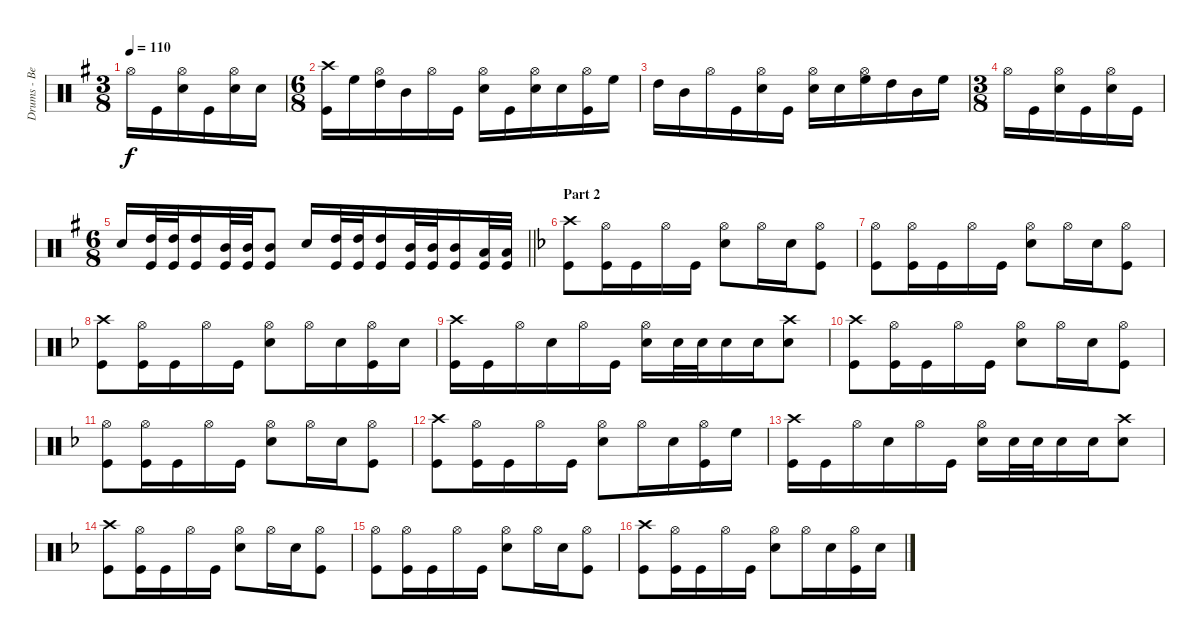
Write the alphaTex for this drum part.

\track ("Drums - Ben Johnston" "Drums - Be") {instrument percussion}
\staff {score}
\articulation defaults
\ts (3 8)
\tempo 110
\clef neutral
\ks g "Hi-Hat (open)".16{dy f} "Kick (hit)".16
("Hi-Hat (open)" "Snare (hit) 2").16 "Kick (hit)".16 ("Hi-Hat (open)" "Snare (hit) 2").16 "Snare (hit) 2".16 |
\ts (6 8)
("Crash high (hit)" "Kick (hit)").16 "High Floor Tom (hit)".16 ("Hi-Hat (open)" "High Tom (hit)").16 "Mid Tom (hit)".16 "Hi-Hat (open)".16 "Kick (hit)".16 ("Hi-Hat (open)" "Snare (hit) 2").16 "Kick (hit)".16 ("Hi-Hat (open)" "Snare (hit) 2").16 "Snare (hit) 2".16 ("Hi-Hat (open)" "Kick (hit)").16 "High Floor Tom (hit)".16 |
"High Tom (hit)".16 "Mid Tom (hit)".16 "Hi-Hat (open)".16 "Kick (hit)".16 ("Hi-Hat (open)" "Snare (hit) 2").16 "Kick (hit)".16 ("Hi-Hat (open)" "Snare (hit) 2").16 "Snare (hit) 2".16 ("Hi-Hat (open)" "High Floor Tom (hit)").16 "High Tom (hit)".16 "Mid Tom (hit)".16 "High Floor Tom (hit)".16 |
\ts (3 8)
"Hi-Hat (open)".16 "Kick (hit)".16 ("Hi-Hat (open)" "Snare (hit) 2").16 "Kick (hit)".16 ("Hi-Hat (open)" "Snare (hit) 2").16 "Kick (hit)".16 |
\ts (6 8)
\barLineRight lightlight "Snare (hit) 2".16
("High Tom (hit)" "Kick (hit)").32 ("High Tom (hit)" "Kick (hit)").32 ("High Tom (hit)" "Kick (hit)").16 ("Mid Tom (hit)" "Kick (hit)").32 ("Mid Tom (hit)" "Kick (hit)").32 ("Mid Tom (hit)" "Kick (hit)").8 "Snare (hit) 2".16 ("High Tom (hit)" "Kick (hit)").32 ("High Tom (hit)" "Kick (hit)").32 ("High Tom (hit)" "Kick (hit)").16 ("Mid Tom (hit)" "Kick (hit)").32 ("Mid Tom (hit)" "Kick (hit)").32 ("Mid Tom (hit)" "Kick (hit)").16 ("Low Tom (hit)" "Kick (hit)").32 ("Low Tom (hit)" "Kick (hit)").32 |
\section ("" "Part 2")
\ks dminor
("Crash high (hit)" "Kick (hit)").8 ("Hi-Hat (open)" "Kick (hit)").16 "Kick (hit)".16 "Hi-Hat (open)".16 "Kick (hit)".16 ("Hi-Hat (open)" "Snare (hit) 2").8 "Hi-Hat (open)".16 "Snare (hit) 2".16 ("Hi-Hat (open)" "Kick (hit)").8 |
("Hi-Hat (open)" "Kick (hit)").8 ("Hi-Hat (open)" "Kick (hit)").16 "Kick (hit)".16 "Hi-Hat (open)".16 "Kick (hit)".16 ("Hi-Hat (open)" "Snare (hit) 2").8 "Hi-Hat (open)".16 "Snare (hit) 2".16 ("Hi-Hat (open)" "Kick (hit)").8 |
("Crash high (hit)" "Kick (hit)").8 ("Hi-Hat (open)" "Kick (hit)").16 "Kick (hit)".16 "Hi-Hat (open)".16 "Kick (hit)".16 ("Hi-Hat (open)" "Snare (hit) 2").8 "Hi-Hat (open)".16 "Snare (hit) 2".16 ("Hi-Hat (open)" "Kick (hit)").16 "Snare (hit) 2".16 |
("Crash high (hit)" "Kick (hit)").16 "Kick (hit)".16 "Hi-Hat (open)".16 "Snare (hit) 2".16 "Hi-Hat (open)".16 "Kick (hit)".16 ("Hi-Hat (open)" "Snare (hit) 2").16 "Snare (hit) 2".32 "Snare (hit) 2".32 "Snare (hit) 2".16 "Snare (hit) 2".16 ("Crash high (hit)" "Snare (hit) 2").8 |
("Crash high (hit)" "Kick (hit)").8 ("Hi-Hat (open)" "Kick (hit)").16 "Kick (hit)".16 "Hi-Hat (open)".16 "Kick (hit)".16 ("Hi-Hat (open)" "Snare (hit) 2").8 "Hi-Hat (open)".16 "Snare (hit) 2".16 ("Hi-Hat (open)" "Kick (hit)").8 |
("Hi-Hat (open)" "Kick (hit)").8 ("Hi-Hat (open)" "Kick (hit)").16 "Kick (hit)".16 "Hi-Hat (open)".16 "Kick (hit)".16 ("Hi-Hat (open)" "Snare (hit) 2").8 "Hi-Hat (open)".16 "Snare (hit) 2".16 ("Hi-Hat (open)" "Kick (hit)").8 |
("Crash high (hit)" "Kick (hit)").8 ("Hi-Hat (open)" "Kick (hit)").16 "Kick (hit)".16 "Hi-Hat (open)".16 "Kick (hit)".16 ("Hi-Hat (open)" "Snare (hit) 2").8 "Hi-Hat (open)".16 "Snare (hit) 2".16 ("Hi-Hat (open)" "Kick (hit)").16 "High Floor Tom (hit)".16 |
("Crash high (hit)" "Kick (hit)").16 "Kick (hit)".16 "Hi-Hat (open)".16 "Snare (hit) 2".16 "Hi-Hat (open)".16 "Kick (hit)".16 ("Hi-Hat (open)" "Snare (hit) 2").16 "Snare (hit) 2".32 "Snare (hit) 2".32 "Snare (hit) 2".16 "Snare (hit) 2".16 ("Crash high (hit)" "Snare (hit) 2").8 |
("Crash high (hit)" "Kick (hit)").8 ("Hi-Hat (open)" "Kick (hit)").16 "Kick (hit)".16 "Hi-Hat (open)".16 "Kick (hit)".16 ("Hi-Hat (open)" "Snare (hit) 2").8 "Hi-Hat (open)".16 "Snare (hit) 2".16 ("Hi-Hat (open)" "Kick (hit)").8 |
("Hi-Hat (open)" "Kick (hit)").8 ("Hi-Hat (open)" "Kick (hit)").16 "Kick (hit)".16 "Hi-Hat (open)".16 "Kick (hit)".16 ("Hi-Hat (open)" "Snare (hit) 2").8 "Hi-Hat (open)".16 "Snare (hit) 2".16 ("Hi-Hat (open)" "Kick (hit)").8 |
("Crash high (hit)" "Kick (hit)").8 ("Hi-Hat (open)" "Kick (hit)").16 "Kick (hit)".16 "Hi-Hat (open)".16 "Kick (hit)".16 ("Hi-Hat (open)" "Snare (hit) 2").8 "Hi-Hat (open)".16 "Snare (hit) 2".16 ("Hi-Hat (open)" "Kick (hit)").16 "Snare (hit) 2".16
